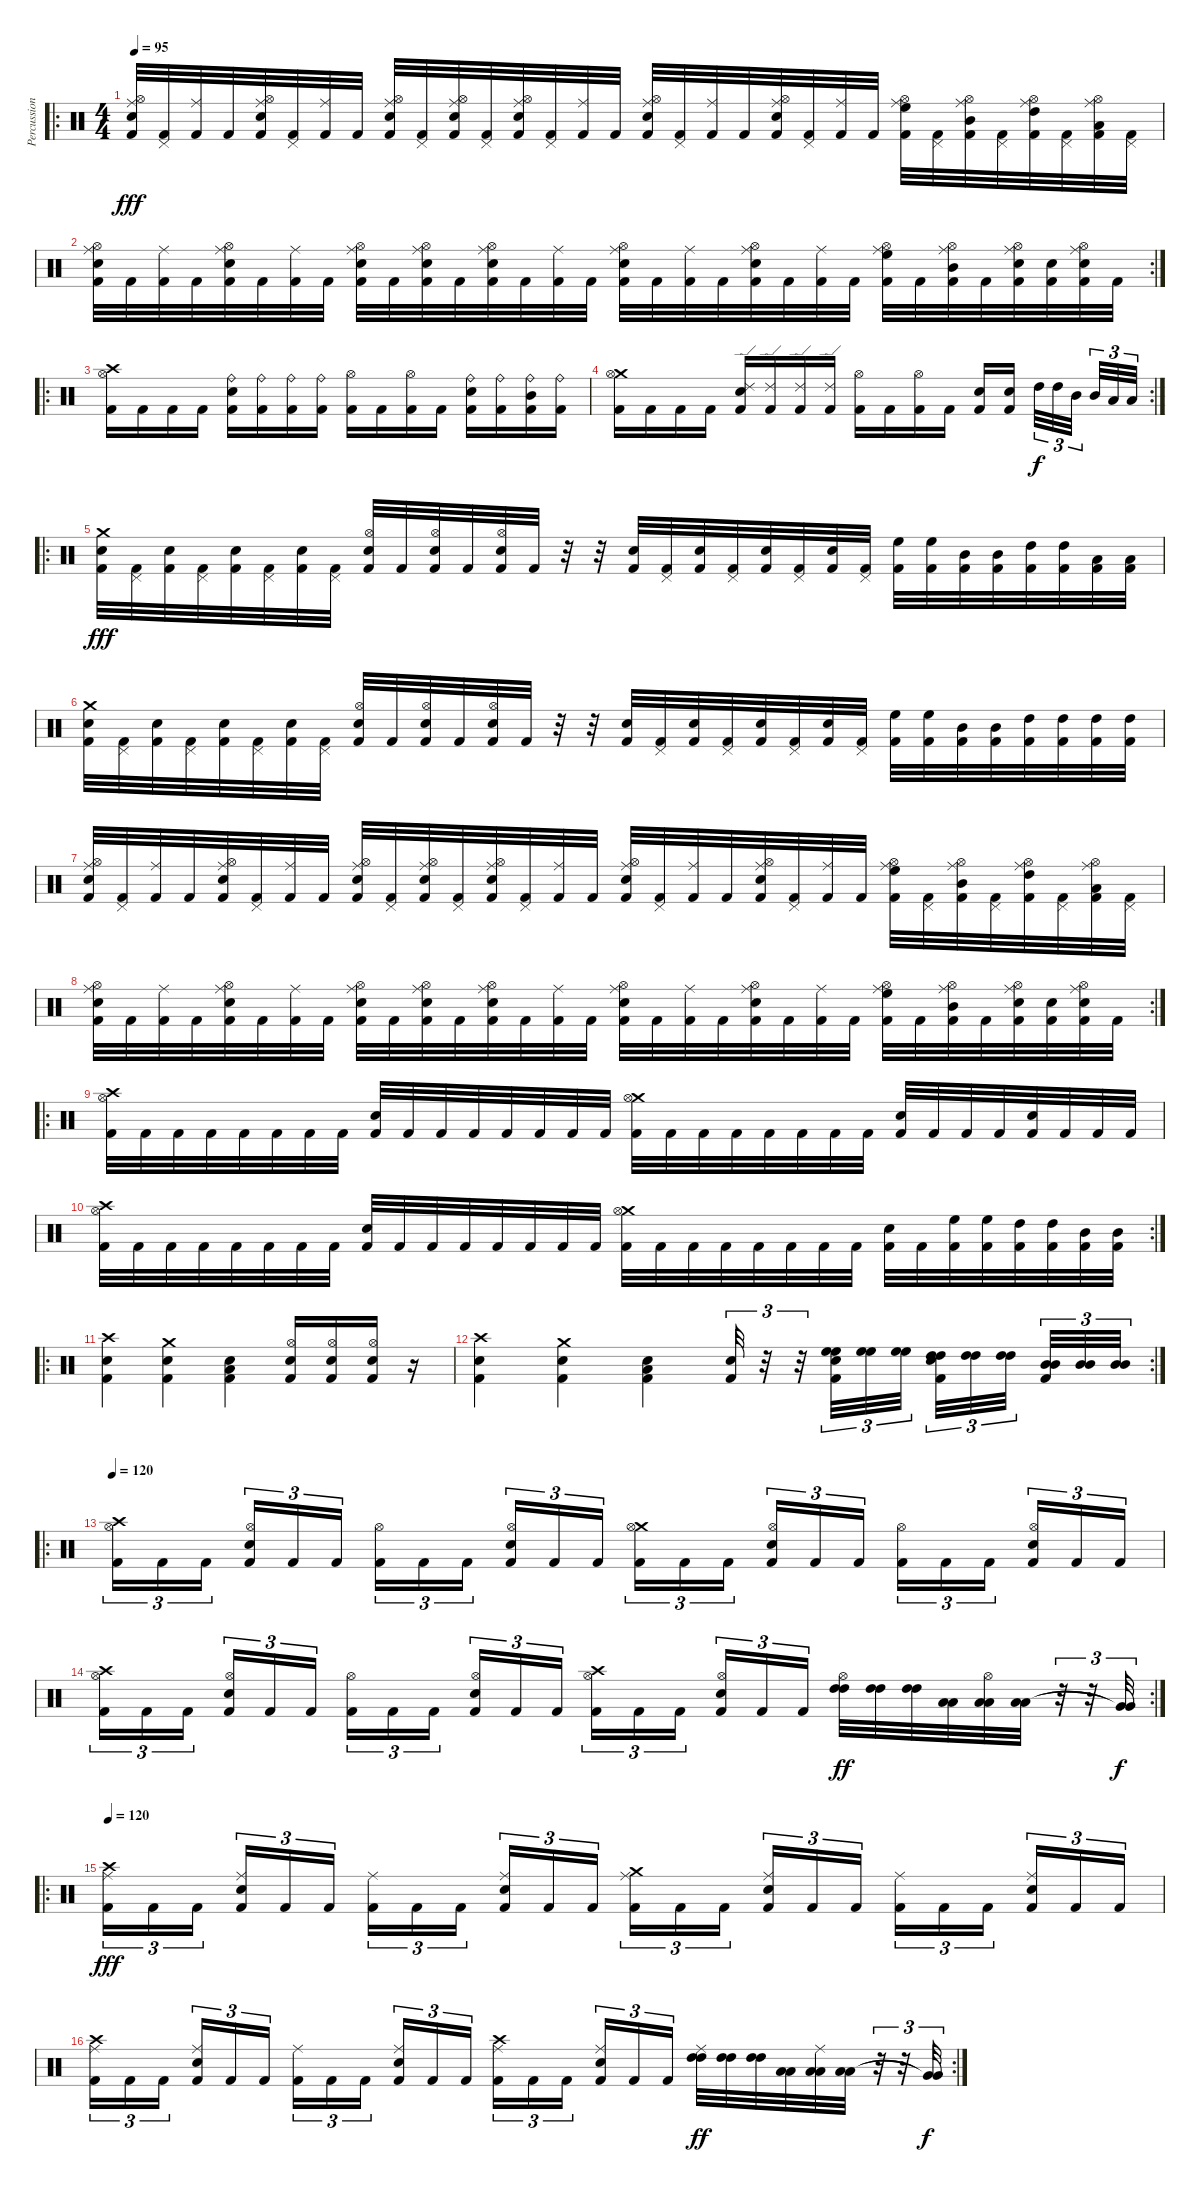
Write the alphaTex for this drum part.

\track ("Percussion" "Percussion") {instrument percussion}
\staff {score}
\articulation defaults
\ro
\ts (4 4)
\tempo 95
\clef neutral
\ks c
("Electric Snare (hit)" "Hi-Hat (open)" "Ride (middle)" "Kick (hit) 2").32{dy fff} ("Pedal Hi-Hat (hit)" "Kick (hit) 2").32 ("Ride (middle)" "Kick (hit) 2").32 "Kick (hit) 2".32 ("Electric Snare (hit)" "Hi-Hat (open)" "Ride (middle)" "Kick (hit) 2").32 ("Pedal Hi-Hat (hit)" "Kick (hit) 2").32 ("Ride (middle)" "Kick (hit) 2").32 "Kick (hit) 2".32 ("Electric Snare (hit)" "Hi-Hat (open)" "Ride (middle)" "Kick (hit) 2").32 ("Pedal Hi-Hat (hit)" "Kick (hit) 2").32 ("Electric Snare (hit)" "Hi-Hat (open)" "Ride (middle)" "Kick (hit) 2").32 ("Pedal Hi-Hat (hit)" "Kick (hit) 2").32 ("Electric Snare (hit)" "Hi-Hat (open)" "Ride (middle)" "Kick (hit) 2").32 ("Pedal Hi-Hat (hit)" "Kick (hit) 2").32 ("Ride (middle)" "Kick (hit) 2").32 "Kick (hit) 2".32 ("Electric Snare (hit)" "Hi-Hat (open)" "Ride (middle)" "Kick (hit) 2").32 ("Pedal Hi-Hat (hit)" "Kick (hit) 2").32 ("Ride (middle)" "Kick (hit) 2").32 "Kick (hit) 2".32 ("Electric Snare (hit)" "Hi-Hat (open)" "Ride (middle)" "Kick (hit) 2").32 ("Pedal Hi-Hat (hit)" "Kick (hit) 2").32 ("Ride (middle)" "Kick (hit) 2").32 "Kick (hit) 2".32 ("High Floor Tom (hit)" "Hi-Hat (open)" "Ride (middle)" "Kick (hit) 2").32 ("Pedal Hi-Hat (hit)" "Kick (hit) 2").32 ("Mid Tom (hit)" "Hi-Hat (open)" "Ride (middle)" "Kick (hit) 2").32 ("Pedal Hi-Hat (hit)" "Kick (hit) 2").32 ("High Tom (hit)" "Hi-Hat (open)" "Ride (middle)" "Kick (hit) 2").32 ("Pedal Hi-Hat (hit)" "Kick (hit) 2").32 ("Low Tom (hit)" "Hi-Hat (open)" "Ride (middle)" "Kick (hit) 2").32 ("Pedal Hi-Hat (hit)" "Kick (hit) 2").32 |
\rc 2
("Electric Snare (hit)" "Hi-Hat (open)" "Ride (middle)" "Kick (hit) 2").32 "Kick (hit) 2".32 ("Ride (middle)" "Kick (hit) 2").32 "Kick (hit) 2".32 ("Electric Snare (hit)" "Hi-Hat (open)" "Ride (middle)" "Kick (hit) 2").32 "Kick (hit) 2".32 ("Ride (middle)" "Kick (hit) 2").32 "Kick (hit) 2".32 ("Electric Snare (hit)" "Hi-Hat (open)" "Ride (middle)" "Kick (hit) 2").32 "Kick (hit) 2".32 ("Electric Snare (hit)" "Hi-Hat (open)" "Ride (middle)" "Kick (hit) 2").32 "Kick (hit) 2".32 ("Electric Snare (hit)" "Hi-Hat (open)" "Ride (middle)" "Kick (hit) 2").32 "Kick (hit) 2".32 ("Ride (middle)" "Kick (hit) 2").32 "Kick (hit) 2".32 ("Electric Snare (hit)" "Hi-Hat (open)" "Ride (middle)" "Kick (hit) 2").32 "Kick (hit) 2".32 ("Ride (middle)" "Kick (hit) 2").32 "Kick (hit) 2".32 ("Electric Snare (hit)" "Hi-Hat (open)" "Ride (middle)" "Kick (hit) 2").32 "Kick (hit) 2".32 ("Ride (middle)" "Kick (hit) 2").32 "Kick (hit) 2".32 ("High Floor Tom (hit)" "Hi-Hat (open)" "Ride (middle)" "Kick (hit) 2").32 "Kick (hit) 2".32 ("Mid Tom (hit)" "Hi-Hat (open)" "Ride (middle)" "Kick (hit) 2").32 "Kick (hit) 2".32 ("Snare (hit) 2" "Hi-Hat (open)" "Ride (middle)" "Kick (hit) 2").32 ("Snare (hit) 2" "Kick (hit) 2").32 ("Snare (hit) 2" "Hi-Hat (open)" "Ride (middle)" "Kick (hit) 2").32 "Kick (hit) 2".32 |
\ro
("Crash high (hit)" "Hi-Hat (open)" "Kick (hit) 2").16 "Kick (hit) 2".16 "Kick (hit) 2".16 "Kick (hit) 2".16 ("Ride (bell)" "Electric Snare (hit)" "Kick (hit) 2").16 ("Ride (bell)" "Kick (hit) 2").16 ("Ride (bell)" "Kick (hit) 2").16 ("Ride (bell)" "Kick (hit) 2").16 ("Hi-Hat (open)" "Kick (hit) 2").16 "Kick (hit) 2".16 ("Hi-Hat (open)" "Kick (hit) 2").16 "Kick (hit) 2".16 ("Ride (bell)" "Electric Snare (hit)" "Kick (hit) 2").16 ("Ride (bell)" "Kick (hit) 2").16 ("Ride (bell)" "Mid Tom (hit)" "Kick (hit) 2").16 ("Ride (bell)" "Kick (hit) 2").16 |
\rc 2
("Crash medium (hit)" "Hi-Hat (open)" "Kick (hit) 2").16 "Kick (hit) 2".16 "Kick (hit) 2".16 "Kick (hit) 2".16 ("Ride (edge) 2" "Electric Snare (hit)" "Kick (hit) 2").16 ("Ride (edge) 2" "Kick (hit) 2").16 ("Ride (edge) 2" "Kick (hit) 2").16 ("Ride (edge) 2" "Kick (hit) 2").16 ("Hi-Hat (open)" "Kick (hit) 2").16 "Kick (hit) 2".16 ("Hi-Hat (open)" "Kick (hit) 2").16 "Kick (hit) 2".16 ("Electric Snare (hit)" "Kick (hit) 2").16 ("Electric Snare (hit)" "Kick (hit) 2").16 "High Tom (hit)".32{tu (3 2) dy f} "High Tom (hit)".32{tu (3 2)} "Mid Tom (hit)".32{tu (3 2)} "Mid Tom (hit)".32{tu (3 2)} "Low Tom (hit)".32{tu (3 2)} "Low Tom (hit)".32{tu (3 2)} |
\ro
("Crash medium (hit)" "Electric Snare (hit)" "Kick (hit) 2").32{dy fff} ("Pedal Hi-Hat (hit)" "Kick (hit) 2").32 ("Electric Snare (hit)" "Kick (hit) 2").32 ("Pedal Hi-Hat (hit)" "Kick (hit) 2").32 ("Electric Snare (hit)" "Kick (hit) 2").32 ("Pedal Hi-Hat (hit)" "Kick (hit) 2").32 ("Electric Snare (hit)" "Kick (hit) 2").32 ("Pedal Hi-Hat (hit)" "Kick (hit) 2").32 ("Electric Snare (hit)" "Hi-Hat (open)" "Kick (hit) 2").32 "Kick (hit) 2".32 ("Electric Snare (hit)" "Hi-Hat (open)" "Kick (hit) 2").32 "Kick (hit) 2".32 ("Electric Snare (hit)" "Hi-Hat (open)" "Kick (hit) 2").32 "Kick (hit) 2".32 r.32 r.32 ("Electric Snare (hit)" "Kick (hit) 2").32 ("Pedal Hi-Hat (hit)" "Kick (hit) 2").32 ("Electric Snare (hit)" "Kick (hit) 2").32 ("Pedal Hi-Hat (hit)" "Kick (hit) 2").32 ("Electric Snare (hit)" "Kick (hit) 2").32 ("Pedal Hi-Hat (hit)" "Kick (hit) 2").32 ("Electric Snare (hit)" "Kick (hit) 2").32 ("Pedal Hi-Hat (hit)" "Kick (hit) 2").32 ("High Floor Tom (hit)" "Kick (hit) 2").32 ("High Floor Tom (hit)" "Kick (hit) 2").32 ("Mid Tom (hit)" "Kick (hit) 2").32 ("Mid Tom (hit)" "Kick (hit) 2").32 ("High Tom (hit)" "Kick (hit) 2").32 ("High Tom (hit)" "Kick (hit) 2").32 ("Low Tom (hit)" "Kick (hit) 2").32 ("Low Tom (hit)" "Kick (hit) 2").32 |
("Crash medium (hit)" "Electric Snare (hit)" "Kick (hit) 2").32 ("Pedal Hi-Hat (hit)" "Kick (hit) 2").32 ("Electric Snare (hit)" "Kick (hit) 2").32 ("Pedal Hi-Hat (hit)" "Kick (hit) 2").32 ("Electric Snare (hit)" "Kick (hit) 2").32 ("Pedal Hi-Hat (hit)" "Kick (hit) 2").32 ("Electric Snare (hit)" "Kick (hit) 2").32 ("Pedal Hi-Hat (hit)" "Kick (hit) 2").32 ("Electric Snare (hit)" "Hi-Hat (open)" "Kick (hit) 2").32 "Kick (hit) 2".32 ("Electric Snare (hit)" "Hi-Hat (open)" "Kick (hit) 2").32 "Kick (hit) 2".32 ("Electric Snare (hit)" "Hi-Hat (open)" "Kick (hit) 2").32 "Kick (hit) 2".32 r.32 r.32 ("Electric Snare (hit)" "Kick (hit) 2").32 ("Pedal Hi-Hat (hit)" "Kick (hit) 2").32 ("Electric Snare (hit)" "Kick (hit) 2").32 ("Pedal Hi-Hat (hit)" "Kick (hit) 2").32 ("Electric Snare (hit)" "Kick (hit) 2").32 ("Pedal Hi-Hat (hit)" "Kick (hit) 2").32 ("Electric Snare (hit)" "Kick (hit) 2").32 ("Pedal Hi-Hat (hit)" "Kick (hit) 2").32 ("High Floor Tom (hit)" "Kick (hit) 2").32 ("High Floor Tom (hit)" "Kick (hit) 2").32 ("Mid Tom (hit)" "Kick (hit) 2").32 ("Mid Tom (hit)" "Kick (hit) 2").32 ("High Tom (hit)" "Kick (hit) 2").32 ("High Tom (hit)" "Kick (hit) 2").32 ("High Tom (hit)" "Kick (hit) 2").32 ("High Tom (hit)" "Kick (hit) 2").32 |
("Electric Snare (hit)" "Hi-Hat (open)" "Ride (middle)" "Kick (hit) 2").32 ("Pedal Hi-Hat (hit)" "Kick (hit) 2").32 ("Ride (middle)" "Kick (hit) 2").32 "Kick (hit) 2".32 ("Electric Snare (hit)" "Hi-Hat (open)" "Ride (middle)" "Kick (hit) 2").32 ("Pedal Hi-Hat (hit)" "Kick (hit) 2").32 ("Ride (middle)" "Kick (hit) 2").32 "Kick (hit) 2".32 ("Electric Snare (hit)" "Hi-Hat (open)" "Ride (middle)" "Kick (hit) 2").32 ("Pedal Hi-Hat (hit)" "Kick (hit) 2").32 ("Electric Snare (hit)" "Hi-Hat (open)" "Ride (middle)" "Kick (hit) 2").32 ("Pedal Hi-Hat (hit)" "Kick (hit) 2").32 ("Electric Snare (hit)" "Hi-Hat (open)" "Ride (middle)" "Kick (hit) 2").32 ("Pedal Hi-Hat (hit)" "Kick (hit) 2").32 ("Ride (middle)" "Kick (hit) 2").32 "Kick (hit) 2".32 ("Electric Snare (hit)" "Hi-Hat (open)" "Ride (middle)" "Kick (hit) 2").32 ("Pedal Hi-Hat (hit)" "Kick (hit) 2").32 ("Ride (middle)" "Kick (hit) 2").32 "Kick (hit) 2".32 ("Electric Snare (hit)" "Hi-Hat (open)" "Ride (middle)" "Kick (hit) 2").32 ("Pedal Hi-Hat (hit)" "Kick (hit) 2").32 ("Ride (middle)" "Kick (hit) 2").32 "Kick (hit) 2".32 ("High Floor Tom (hit)" "Hi-Hat (open)" "Ride (middle)" "Kick (hit) 2").32 ("Pedal Hi-Hat (hit)" "Kick (hit) 2").32 ("Mid Tom (hit)" "Hi-Hat (open)" "Ride (middle)" "Kick (hit) 2").32 ("Pedal Hi-Hat (hit)" "Kick (hit) 2").32 ("High Tom (hit)" "Hi-Hat (open)" "Ride (middle)" "Kick (hit) 2").32 ("Pedal Hi-Hat (hit)" "Kick (hit) 2").32 ("Low Tom (hit)" "Hi-Hat (open)" "Ride (middle)" "Kick (hit) 2").32 ("Pedal Hi-Hat (hit)" "Kick (hit) 2").32 |
\rc 2
("Electric Snare (hit)" "Hi-Hat (open)" "Ride (middle)" "Kick (hit) 2").32 "Kick (hit) 2".32 ("Ride (middle)" "Kick (hit) 2").32 "Kick (hit) 2".32 ("Electric Snare (hit)" "Hi-Hat (open)" "Ride (middle)" "Kick (hit) 2").32 "Kick (hit) 2".32 ("Ride (middle)" "Kick (hit) 2").32 "Kick (hit) 2".32 ("Electric Snare (hit)" "Hi-Hat (open)" "Ride (middle)" "Kick (hit) 2").32 "Kick (hit) 2".32 ("Electric Snare (hit)" "Hi-Hat (open)" "Ride (middle)" "Kick (hit) 2").32 "Kick (hit) 2".32 ("Electric Snare (hit)" "Hi-Hat (open)" "Ride (middle)" "Kick (hit) 2").32 "Kick (hit) 2".32 ("Ride (middle)" "Kick (hit) 2").32 "Kick (hit) 2".32 ("Electric Snare (hit)" "Hi-Hat (open)" "Ride (middle)" "Kick (hit) 2").32 "Kick (hit) 2".32 ("Ride (middle)" "Kick (hit) 2").32 "Kick (hit) 2".32 ("Electric Snare (hit)" "Hi-Hat (open)" "Ride (middle)" "Kick (hit) 2").32 "Kick (hit) 2".32 ("Ride (middle)" "Kick (hit) 2").32 "Kick (hit) 2".32 ("High Floor Tom (hit)" "Hi-Hat (open)" "Ride (middle)" "Kick (hit) 2").32 "Kick (hit) 2".32 ("Mid Tom (hit)" "Hi-Hat (open)" "Ride (middle)" "Kick (hit) 2").32 "Kick (hit) 2".32 ("Snare (hit) 2" "Hi-Hat (open)" "Ride (middle)" "Kick (hit) 2").32 ("Snare (hit) 2" "Kick (hit) 2").32 ("Snare (hit) 2" "Hi-Hat (open)" "Ride (middle)" "Kick (hit) 2").32 "Kick (hit) 2".32 |
\ro
("Crash high (hit)" "Hi-Hat (open)" "Kick (hit) 2").32 "Kick (hit) 2".32 "Kick (hit) 2".32 "Kick (hit) 2".32 "Kick (hit) 2".32 "Kick (hit) 2".32 "Kick (hit) 2".32 "Kick (hit) 2".32 ("Snare (hit) 2" "Kick (hit) 2").32 "Kick (hit) 2".32 "Kick (hit) 2".32 "Kick (hit) 2".32 "Kick (hit) 2".32 "Kick (hit) 2".32 "Kick (hit) 2".32 "Kick (hit) 2".32 ("Crash medium (hit)" "Hi-Hat (open)" "Kick (hit) 2").32 "Kick (hit) 2".32 "Kick (hit) 2".32 "Kick (hit) 2".32 "Kick (hit) 2".32 "Kick (hit) 2".32 "Kick (hit) 2".32 "Kick (hit) 2".32 ("Snare (hit) 2" "Kick (hit) 2").32 "Kick (hit) 2".32 "Kick (hit) 2".32 "Kick (hit) 2".32 ("Snare (hit) 2" "Kick (hit) 2").32 "Kick (hit) 2".32 "Kick (hit) 2".32 "Kick (hit) 2".32 |
\rc 2
("Crash high (hit)" "Hi-Hat (open)" "Kick (hit) 2").32 "Kick (hit) 2".32 "Kick (hit) 2".32 "Kick (hit) 2".32 "Kick (hit) 2".32 "Kick (hit) 2".32 "Kick (hit) 2".32 "Kick (hit) 2".32 ("Snare (hit) 2" "Kick (hit) 2").32 "Kick (hit) 2".32 "Kick (hit) 2".32 "Kick (hit) 2".32 "Kick (hit) 2".32 "Kick (hit) 2".32 "Kick (hit) 2".32 "Kick (hit) 2".32 ("Crash medium (hit)" "Hi-Hat (open)" "Kick (hit) 2").32 "Kick (hit) 2".32 "Kick (hit) 2".32 "Kick (hit) 2".32 "Kick (hit) 2".32 "Kick (hit) 2".32 "Kick (hit) 2".32 "Kick (hit) 2".32 ("Electric Snare (hit)" "Kick (hit) 2").32 "Kick (hit) 2".32 ("High Floor Tom (hit)" "Kick (hit) 2").32 ("High Floor Tom (hit)" "Kick (hit) 2").32 ("High Tom (hit)" "Kick (hit) 2").32 ("High Tom (hit)" "Kick (hit) 2").32 ("Mid Tom (hit)" "Kick (hit) 2").32 ("Mid Tom (hit)" "Kick (hit) 2").32 |
\ro
("Crash high (hit)" "Electric Snare (hit)" "Kick (hit) 2").4 ("Crash medium (hit)" "Electric Snare (hit)" "Kick (hit) 2").4 ("Low Tom (hit)" "Electric Snare (hit)" "Kick (hit) 2").4 ("Hi-Hat (open)" "Electric Snare (hit)" "Kick (hit) 2").16 ("Hi-Hat (open)" "Electric Snare (hit)" "Kick (hit) 2").16 ("Hi-Hat (open)" "Electric Snare (hit)" "Kick (hit) 2").16 r.16 |
\rc 2
("Crash high (hit)" "Electric Snare (hit)" "Kick (hit) 2").4 ("Crash medium (hit)" "Electric Snare (hit)" "Kick (hit) 2").4 ("Low Tom (hit)" "Electric Snare (hit)" "Kick (hit) 2").4 ("Electric Snare (hit)" "Kick (hit) 2").32{tu (3 2)} r.32{tu (3 2)} r.32{tu (3 2)} ("High Floor Tom (hit)" "Electric Snare (hit)" "High Floor Tom (hit)" "Kick (hit) 2").32{tu (3 2)} ("High Floor Tom (hit)" "High Floor Tom (hit)").32{tu (3 2)} ("High Floor Tom (hit)" "High Floor Tom (hit)").32{tu (3 2)} ("High Tom (hit)" "Electric Snare (hit)" "High Tom (hit)" "Kick (hit) 2").32{tu (3 2)} ("High Tom (hit)" "High Tom (hit)").32{tu (3 2)} ("High Tom (hit)" "High Tom (hit)").32{tu (3 2)} ("Mid Tom (hit)" "Mid Tom (hit)" "Kick (hit) 2").32{tu (3 2)} ("Mid Tom (hit)" "Mid Tom (hit)").32{tu (3 2)} ("Mid Tom (hit)" "Mid Tom (hit)").32{tu (3 2)} |
\ro
\tempo 120
("Crash high (hit)" "Hi-Hat (open)" "Kick (hit) 2").16{tu (3 2)} "Kick (hit) 2".16{tu (3 2)} "Kick (hit) 2".16{tu (3 2)} ("Hi-Hat (open)" "Electric Snare (hit)" "Kick (hit) 2").16{tu (3 2)} "Kick (hit) 2".16{tu (3 2)} "Kick (hit) 2".16{tu (3 2)} ("Hi-Hat (open)" "Kick (hit) 2").16{tu (3 2)} "Kick (hit) 2".16{tu (3 2)} "Kick (hit) 2".16{tu (3 2)} ("Hi-Hat (open)" "Electric Snare (hit)" "Kick (hit) 2").16{tu (3 2)} "Kick (hit) 2".16{tu (3 2)} "Kick (hit) 2".16{tu (3 2)} ("Crash medium (hit)" "Hi-Hat (open)" "Kick (hit) 2").16{tu (3 2)} "Kick (hit) 2".16{tu (3 2)} "Kick (hit) 2".16{tu (3 2)} ("Hi-Hat (open)" "Electric Snare (hit)" "Kick (hit) 2").16{tu (3 2)} "Kick (hit) 2".16{tu (3 2)} "Kick (hit) 2".16{tu (3 2)} ("Hi-Hat (open)" "Kick (hit) 2").16{tu (3 2)} "Kick (hit) 2".16{tu (3 2)} "Kick (hit) 2".16{tu (3 2)} ("Hi-Hat (open)" "Electric Snare (hit)" "Kick (hit) 2").16{tu (3 2)} "Kick (hit) 2".16{tu (3 2)} "Kick (hit) 2".16{tu (3 2)} |
\rc 2
("Crash high (hit)" "Hi-Hat (open)" "Kick (hit) 2").16{tu (3 2)} "Kick (hit) 2".16{tu (3 2)} "Kick (hit) 2".16{tu (3 2)} ("Hi-Hat (open)" "Electric Snare (hit)" "Kick (hit) 2").16{tu (3 2)} "Kick (hit) 2".16{tu (3 2)} "Kick (hit) 2".16{tu (3 2)} ("Hi-Hat (open)" "Kick (hit) 2").16{tu (3 2)} "Kick (hit) 2".16{tu (3 2)} "Kick (hit) 2".16{tu (3 2)} ("Hi-Hat (open)" "Electric Snare (hit)" "Kick (hit) 2").16{tu (3 2)} "Kick (hit) 2".16{tu (3 2)} "Kick (hit) 2".16{tu (3 2)} ("Crash high (hit)" "Hi-Hat (open)" "Kick (hit) 2").16{tu (3 2)} "Kick (hit) 2".16{tu (3 2)} "Kick (hit) 2".16{tu (3 2)} ("Hi-Hat (open)" "Electric Snare (hit)" "Kick (hit) 2").16{tu (3 2)} "Kick (hit) 2".16{tu (3 2)} "Kick (hit) 2".16{tu (3 2)} ("Hi-Hat (open)" "High Tom (hit)" "High Tom (hit)").32{dy ff} ("High Tom (hit)" "High Tom (hit)").32 ("High Tom (hit)" "High Tom (hit)").32 ("Low Tom (hit)" "Low Tom (hit)").32 ("Hi-Hat (open)" "Low Tom (hit)" "Low Tom (hit)").32 ("Low Tom (hit)" "Low Tom (hit)").32 r.32{tu (3 2)} r.32{tu (3 2)} ("Very Low Tom (hit)"{t} "Very Low Tom (hit)"{t}).32{tu (3 2) dy f} |
\ro
\tempo 120
("Crash high (hit)" "Ride (middle)" "Kick (hit) 2").16{tu (3 2) dy fff} "Kick (hit) 2".16{tu (3 2)} "Kick (hit) 2".16{tu (3 2)} ("Ride (middle)" "Electric Snare (hit)" "Kick (hit) 2").16{tu (3 2)} "Kick (hit) 2".16{tu (3 2)} "Kick (hit) 2".16{tu (3 2)} ("Ride (middle)" "Kick (hit) 2").16{tu (3 2)} "Kick (hit) 2".16{tu (3 2)} "Kick (hit) 2".16{tu (3 2)} ("Ride (middle)" "Electric Snare (hit)" "Kick (hit) 2").16{tu (3 2)} "Kick (hit) 2".16{tu (3 2)} "Kick (hit) 2".16{tu (3 2)} ("Crash medium (hit)" "Ride (middle)" "Kick (hit) 2").16{tu (3 2)} "Kick (hit) 2".16{tu (3 2)} "Kick (hit) 2".16{tu (3 2)} ("Ride (middle)" "Electric Snare (hit)" "Kick (hit) 2").16{tu (3 2)} "Kick (hit) 2".16{tu (3 2)} "Kick (hit) 2".16{tu (3 2)} ("Ride (middle)" "Kick (hit) 2").16{tu (3 2)} "Kick (hit) 2".16{tu (3 2)} "Kick (hit) 2".16{tu (3 2)} ("Ride (middle)" "Electric Snare (hit)" "Kick (hit) 2").16{tu (3 2)} "Kick (hit) 2".16{tu (3 2)} "Kick (hit) 2".16{tu (3 2)} |
\rc 2
("Crash high (hit)" "Ride (middle)" "Kick (hit) 2").16{tu (3 2)} "Kick (hit) 2".16{tu (3 2)} "Kick (hit) 2".16{tu (3 2)} ("Ride (middle)" "Electric Snare (hit)" "Kick (hit) 2").16{tu (3 2)} "Kick (hit) 2".16{tu (3 2)} "Kick (hit) 2".16{tu (3 2)} ("Ride (middle)" "Kick (hit) 2").16{tu (3 2)} "Kick (hit) 2".16{tu (3 2)} "Kick (hit) 2".16{tu (3 2)} ("Ride (middle)" "Electric Snare (hit)" "Kick (hit) 2").16{tu (3 2)} "Kick (hit) 2".16{tu (3 2)} "Kick (hit) 2".16{tu (3 2)} ("Crash high (hit)" "Ride (middle)" "Kick (hit) 2").16{tu (3 2)} "Kick (hit) 2".16{tu (3 2)} "Kick (hit) 2".16{tu (3 2)} ("Ride (middle)" "Electric Snare (hit)" "Kick (hit) 2").16{tu (3 2)} "Kick (hit) 2".16{tu (3 2)} "Kick (hit) 2".16{tu (3 2)} ("Ride (middle)" "High Tom (hit)" "High Tom (hit)").32{dy ff} ("High Tom (hit)" "High Tom (hit)").32 ("High Tom (hit)" "High Tom (hit)").32 ("Low Tom (hit)" "Low Tom (hit)").32 ("Ride (middle)" "Low Tom (hit)" "Low Tom (hit)").32 ("Low Tom (hit)" "Low Tom (hit)").32 r.32{tu (3 2)} r.32{tu (3 2)} ("Very Low Tom (hit)"{t} "Very Low Tom (hit)"{t}).32{tu (3 2) dy f}
